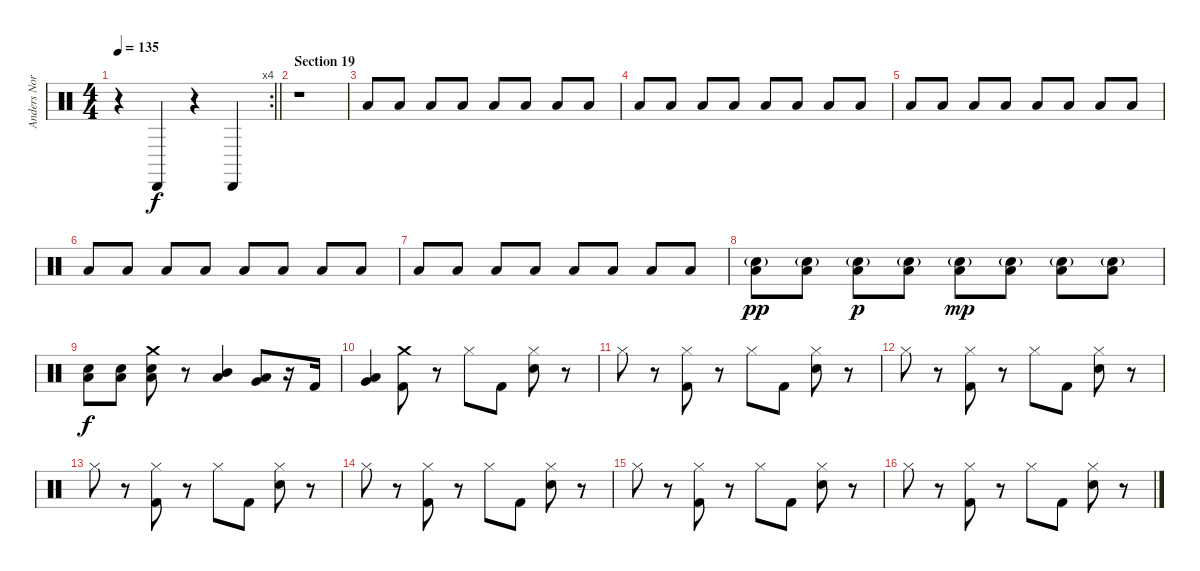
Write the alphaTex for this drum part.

\track ("Anders Nordin" "Anders Nor") {instrument percussion}
\staff {score}
\articulation defaults
\rc 4
\ts (4 4)
\tempo 135
\clef neutral
\barLineRight lightlight
\ks c
r.4{dy f} "Cabasa (hit)".4 r.4 "Cabasa (hit)".4 |
\section ("" "Section 19")
r.1 |
"Low Tom (hit)".8{volume 1} "Low Tom (hit)".8{volume 10} "Low Tom (hit)".8 "Low Tom (hit)".8 "Low Tom (hit)".8 "Low Tom (hit)".8 "Low Tom (hit)".8 "Low Tom (hit)".8 |
"Low Tom (hit)".8 "Low Tom (hit)".8 "Low Tom (hit)".8 "Low Tom (hit)".8 "Low Tom (hit)".8 "Low Tom (hit)".8 "Low Tom (hit)".8 "Low Tom (hit)".8 |
"Low Tom (hit)".8 "Low Tom (hit)".8 "Low Tom (hit)".8 "Low Tom (hit)".8 "Low Tom (hit)".8 "Low Tom (hit)".8 "Low Tom (hit)".8 "Low Tom (hit)".8 |
"Low Tom (hit)".8 "Low Tom (hit)".8 "Low Tom (hit)".8 "Low Tom (hit)".8 "Low Tom (hit)".8 "Low Tom (hit)".8 "Low Tom (hit)".8 "Low Tom (hit)".8 |
"Low Tom (hit)".8{volume 15} "Low Tom (hit)".8 "Low Tom (hit)".8 "Low Tom (hit)".8 "Low Tom (hit)".8 "Low Tom (hit)".8 "Low Tom (hit)".8 "Low Tom (hit)".8 |
("Low Tom (hit)" "Snare (hit) 2"{g}).8{dy pp} ("Low Tom (hit)" "Snare (hit) 2"{g}).8 ("Low Tom (hit)" "Snare (hit) 2"{g}).8{dy p} ("Low Tom (hit)" "Snare (hit) 2"{g}).8 ("Low Tom (hit)" "Snare (hit) 2"{g}).8{dy mp} ("Low Tom (hit)" "Snare (hit) 2"{g}).8 ("Low Tom (hit)" "Snare (hit) 2"{g}).8 ("Low Tom (hit)" "Snare (hit) 2"{g}).8 |
("Low Tom (hit)" "Snare (hit) 2").8{dy f} ("Low Tom (hit)" "Snare (hit) 2").8 ("Low Tom (hit)" "Snare (hit) 2" "Crash medium (hit)").8 r.8 ("Mid Tom (hit)" "Low Tom (hit)").4 ("Low Tom (hit)" "Very Low Tom (hit)").8 r.16 "Kick (hit) 2".16 |
("Very Low Tom (hit)" "Low Floor Tom (hit)").4 ("Crash medium (hit)" "Kick (hit) 2").8 r.8 "Hi-Hat (closed)".8 "Kick (hit) 2".8 ("Hi-Hat (closed)" "Snare (hit) 2").8 r.8 |
"Hi-Hat (closed)".8 r.8 ("Hi-Hat (closed)" "Kick (hit) 2").8 r.8 "Hi-Hat (closed)".8 "Kick (hit) 2".8 ("Hi-Hat (closed)" "Snare (hit) 2").8 r.8 |
"Hi-Hat (closed)".8 r.8 ("Hi-Hat (closed)" "Kick (hit) 2").8 r.8 "Hi-Hat (closed)".8 "Kick (hit) 2".8 ("Hi-Hat (closed)" "Snare (hit) 2").8 r.8 |
"Hi-Hat (closed)".8 r.8 ("Hi-Hat (closed)" "Kick (hit) 2").8 r.8 "Hi-Hat (closed)".8 "Kick (hit) 2".8 ("Hi-Hat (closed)" "Snare (hit) 2").8 r.8 |
"Hi-Hat (closed)".8 r.8 ("Hi-Hat (closed)" "Kick (hit) 2").8 r.8 "Hi-Hat (closed)".8 "Kick (hit) 2".8 ("Hi-Hat (closed)" "Snare (hit) 2").8 r.8 |
"Hi-Hat (closed)".8 r.8 ("Hi-Hat (closed)" "Kick (hit) 2").8 r.8 "Hi-Hat (closed)".8 "Kick (hit) 2".8 ("Hi-Hat (closed)" "Snare (hit) 2").8 r.8 |
"Hi-Hat (closed)".8 r.8 ("Hi-Hat (closed)" "Kick (hit) 2").8 r.8 "Hi-Hat (closed)".8 "Kick (hit) 2".8 ("Hi-Hat (closed)" "Snare (hit) 2").8 r.8
